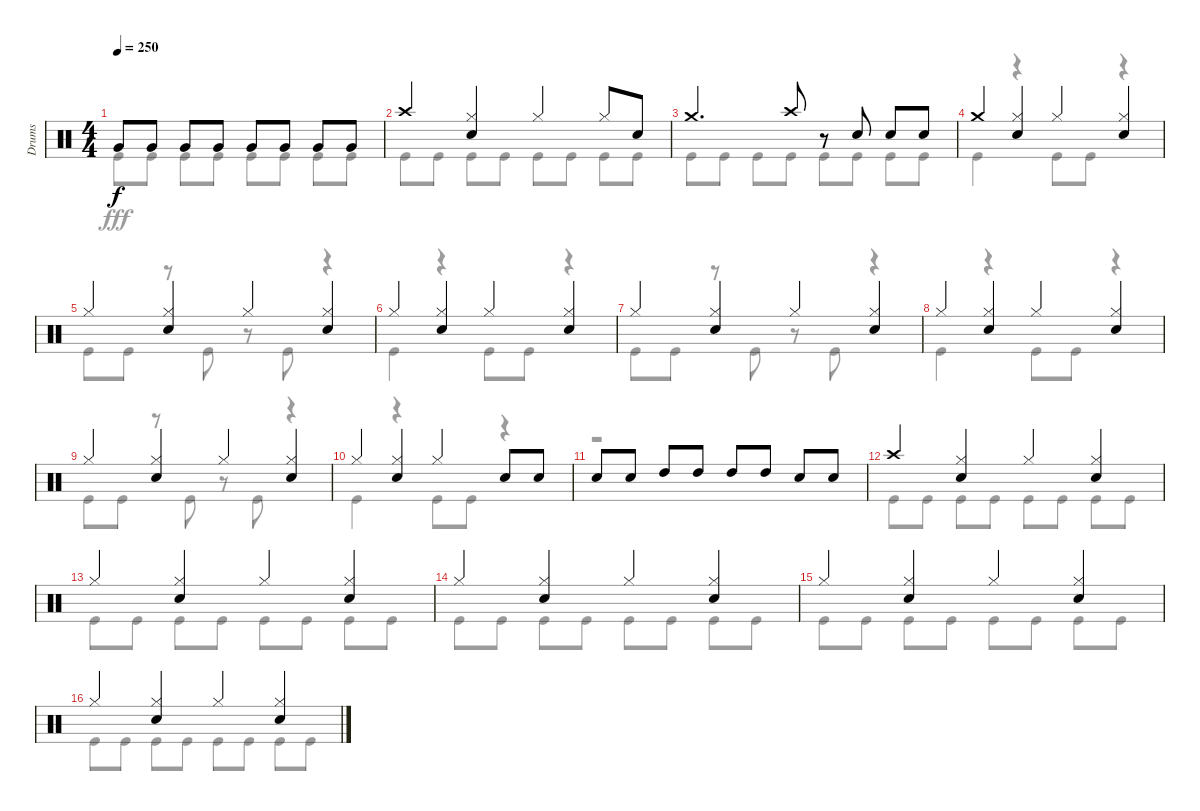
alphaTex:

\track ("Drums" "Drums") {instrument percussion}
\staff {score}
\articulation defaults
\voice
\ts (4 4)
\tempo 250
\clef neutral
\ks c "Very Low Tom (hit)".8{dy f} "Very Low Tom (hit)".8 "Very Low Tom (hit)".8 "Very Low Tom (hit)".8 "Very Low Tom (hit)".8 "Very Low Tom (hit)".8 "Very Low Tom (hit)".8 "Very Low Tom (hit)".8
|
"Crash high (hit)".4 ("Hi-Hat (closed)" "Snare (hit) 2").4 "Hi-Hat (closed)".4 "Hi-Hat (closed)".8 "Snare (hit) 2".8 |
"Crash medium (hit)".4{d} "Crash high (hit)".8 r.8 "Snare (hit) 2".8 "Snare (hit) 2".8 "Snare (hit) 2".8 |
"Crash medium (hit)".4 ("Hi-Hat (closed)" "Snare (hit) 2").4 "Hi-Hat (closed)".4 ("Hi-Hat (closed)" "Snare (hit) 2").4 |
"Hi-Hat (closed)".4 ("Hi-Hat (closed)" "Snare (hit) 2").4 "Hi-Hat (closed)".4 ("Hi-Hat (closed)" "Snare (hit) 2").4 |
"Hi-Hat (closed)".4 ("Hi-Hat (closed)" "Snare (hit) 2").4 "Hi-Hat (closed)".4 ("Hi-Hat (closed)" "Snare (hit) 2").4 |
"Hi-Hat (closed)".4 ("Hi-Hat (closed)" "Snare (hit) 2").4 "Hi-Hat (closed)".4 ("Hi-Hat (closed)" "Snare (hit) 2").4 |
"Hi-Hat (closed)".4 ("Hi-Hat (closed)" "Snare (hit) 2").4 "Hi-Hat (closed)".4 ("Hi-Hat (closed)" "Snare (hit) 2").4 |
"Hi-Hat (closed)".4 ("Hi-Hat (closed)" "Snare (hit) 2").4 "Hi-Hat (closed)".4 ("Hi-Hat (closed)" "Snare (hit) 2").4 |
"Hi-Hat (closed)".4 ("Hi-Hat (closed)" "Snare (hit) 2").4 "Hi-Hat (closed)".4 "Snare (hit) 2".8 "Snare (hit) 2".8 |
"Snare (hit) 2".8 "Snare (hit) 2".8 "High Tom (hit)".8 "High Tom (hit)".8 "High Tom (hit)".8 "High Tom (hit)".8 "Snare (hit) 2".8 "Snare (hit) 2".8 |
"Crash high (hit)".4 ("Hi-Hat (closed)" "Snare (hit) 2").4 "Hi-Hat (closed)".4 ("Hi-Hat (closed)" "Snare (hit) 2").4 |
"Hi-Hat (closed)".4 ("Hi-Hat (closed)" "Snare (hit) 2").4 "Hi-Hat (closed)".4 ("Hi-Hat (closed)" "Snare (hit) 2").4 |
"Hi-Hat (closed)".4 ("Hi-Hat (closed)" "Snare (hit) 2").4 "Hi-Hat (closed)".4 ("Hi-Hat (closed)" "Snare (hit) 2").4 |
"Hi-Hat (closed)".4 ("Hi-Hat (closed)" "Snare (hit) 2").4 "Hi-Hat (closed)".4 ("Hi-Hat (closed)" "Snare (hit) 2").4 |
"Hi-Hat (closed)".4 ("Hi-Hat (closed)" "Snare (hit) 2").4 "Hi-Hat (closed)".4 ("Hi-Hat (closed)" "Snare (hit) 2").4
\voice
\clef neutral
\ottava regular
\simile none
\ks c "Kick (hit)".8{dy fff} "Kick (hit)".8 "Kick (hit)".8 "Kick (hit)".8 "Kick (hit)".8 "Kick (hit)".8 "Kick (hit)".8 "Kick (hit)".8
|
"Kick (hit)".8 "Kick (hit)".8 "Kick (hit)".8 "Kick (hit)".8 "Kick (hit)".8 "Kick (hit)".8 "Kick (hit)".8 "Kick (hit)".8 |
"Kick (hit)".8 "Kick (hit)".8 "Kick (hit)".8 "Kick (hit)".8 "Kick (hit)".8 "Kick (hit)".8 "Kick (hit)".8 "Kick (hit)".8 |
"Kick (hit)".4 r.4 "Kick (hit)".8 "Kick (hit)".8 r.4 |
"Kick (hit)".8 "Kick (hit)".8 r.8 "Kick (hit)".8 r.8 "Kick (hit)".8 r.4 |
"Kick (hit)".4 r.4 "Kick (hit)".8 "Kick (hit)".8 r.4 |
"Kick (hit)".8 "Kick (hit)".8 r.8 "Kick (hit)".8 r.8 "Kick (hit)".8 r.4 |
"Kick (hit)".4 r.4 "Kick (hit)".8 "Kick (hit)".8 r.4 |
"Kick (hit)".8 "Kick (hit)".8 r.8 "Kick (hit)".8 r.8 "Kick (hit)".8 r.4 |
"Kick (hit)".4 r.4 "Kick (hit)".8 "Kick (hit)".8 r.4 |
r.1 |
"Kick (hit)".8 "Kick (hit)".8 "Kick (hit)".8 "Kick (hit)".8 "Kick (hit)".8 "Kick (hit)".8 "Kick (hit)".8 "Kick (hit)".8 |
"Kick (hit)".8 "Kick (hit)".8 "Kick (hit)".8 "Kick (hit)".8 "Kick (hit)".8 "Kick (hit)".8 "Kick (hit)".8 "Kick (hit)".8 |
"Kick (hit)".8 "Kick (hit)".8 "Kick (hit)".8 "Kick (hit)".8 "Kick (hit)".8 "Kick (hit)".8 "Kick (hit)".8 "Kick (hit)".8 |
"Kick (hit)".8 "Kick (hit)".8 "Kick (hit)".8 "Kick (hit)".8 "Kick (hit)".8 "Kick (hit)".8 "Kick (hit)".8 "Kick (hit)".8 |
"Kick (hit)".8 "Kick (hit)".8 "Kick (hit)".8 "Kick (hit)".8 "Kick (hit)".8 "Kick (hit)".8 "Kick (hit)".8 "Kick (hit)".8
